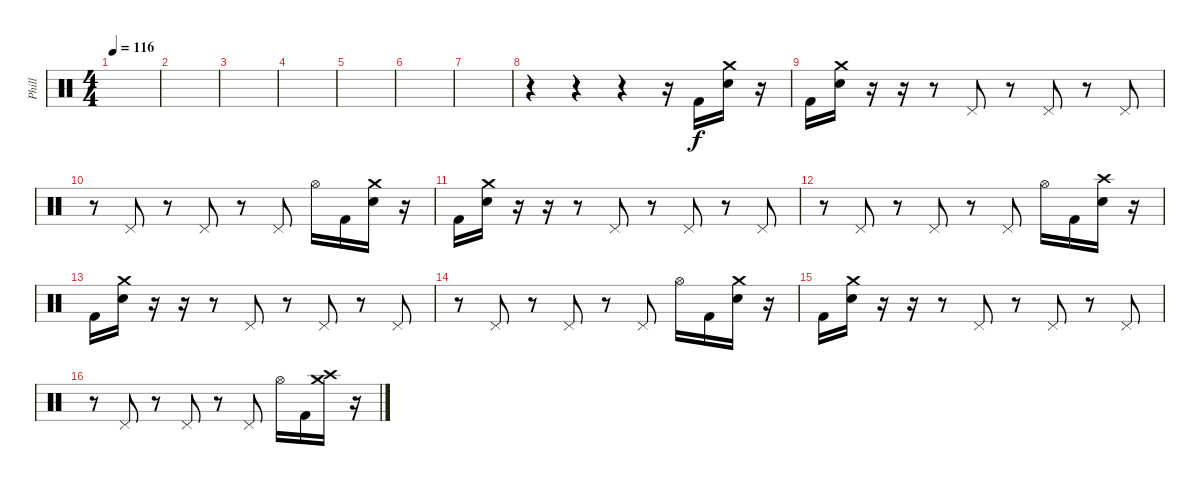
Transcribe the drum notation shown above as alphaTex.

\track ("Phill" "Phill") {instrument percussion}
\staff {score}
\articulation defaults
\ts (4 4)
\tempo 116
\clef neutral
\ks c
|
|
|
|
|
|
|
r.4 r.4 r.4 r.16 "Kick (hit) 2".16 ("Crash medium (hit)" "Electric Snare (hit)").16 r.16 |
"Kick (hit) 2".16 ("Crash medium (hit)" "Electric Snare (hit)").16 r.16 r.16 r.8 "Pedal Hi-Hat (hit)".8 r.8 "Pedal Hi-Hat (hit)".8 r.8 "Pedal Hi-Hat (hit)".8 |
r.8 "Pedal Hi-Hat (hit)".8 r.8 "Pedal Hi-Hat (hit)".8 r.8 "Pedal Hi-Hat (hit)".8 "Hi-Hat (open)".16 "Kick (hit) 2".16 ("Crash medium (hit)" "Electric Snare (hit)").16 r.16 |
"Kick (hit) 2".16 ("Crash medium (hit)" "Electric Snare (hit)").16 r.16 r.16 r.8 "Pedal Hi-Hat (hit)".8 r.8 "Pedal Hi-Hat (hit)".8 r.8 "Pedal Hi-Hat (hit)".8 |
r.8 "Pedal Hi-Hat (hit)".8 r.8 "Pedal Hi-Hat (hit)".8 r.8 "Pedal Hi-Hat (hit)".8 "Hi-Hat (open)".16 "Kick (hit) 2".16 ("Crash high (hit)" "Electric Snare (hit)").16 r.16 |
"Kick (hit) 2".16 ("Crash medium (hit)" "Electric Snare (hit)").16 r.16 r.16 r.8 "Pedal Hi-Hat (hit)".8 r.8 "Pedal Hi-Hat (hit)".8 r.8 "Pedal Hi-Hat (hit)".8 |
r.8 "Pedal Hi-Hat (hit)".8 r.8 "Pedal Hi-Hat (hit)".8 r.8 "Pedal Hi-Hat (hit)".8 "Hi-Hat (open)".16 "Kick (hit) 2".16 ("Crash medium (hit)" "Electric Snare (hit)").16 r.16 |
"Kick (hit) 2".16 ("Crash medium (hit)" "Electric Snare (hit)").16 r.16 r.16 r.8 "Pedal Hi-Hat (hit)".8 r.8 "Pedal Hi-Hat (hit)".8 r.8 "Pedal Hi-Hat (hit)".8 |
r.8 "Pedal Hi-Hat (hit)".8 r.8 "Pedal Hi-Hat (hit)".8 r.8 "Pedal Hi-Hat (hit)".8 "Hi-Hat (open)".16 "Kick (hit) 2".16 ("Crash medium (hit)" "Crash high (hit)").16 r.16
